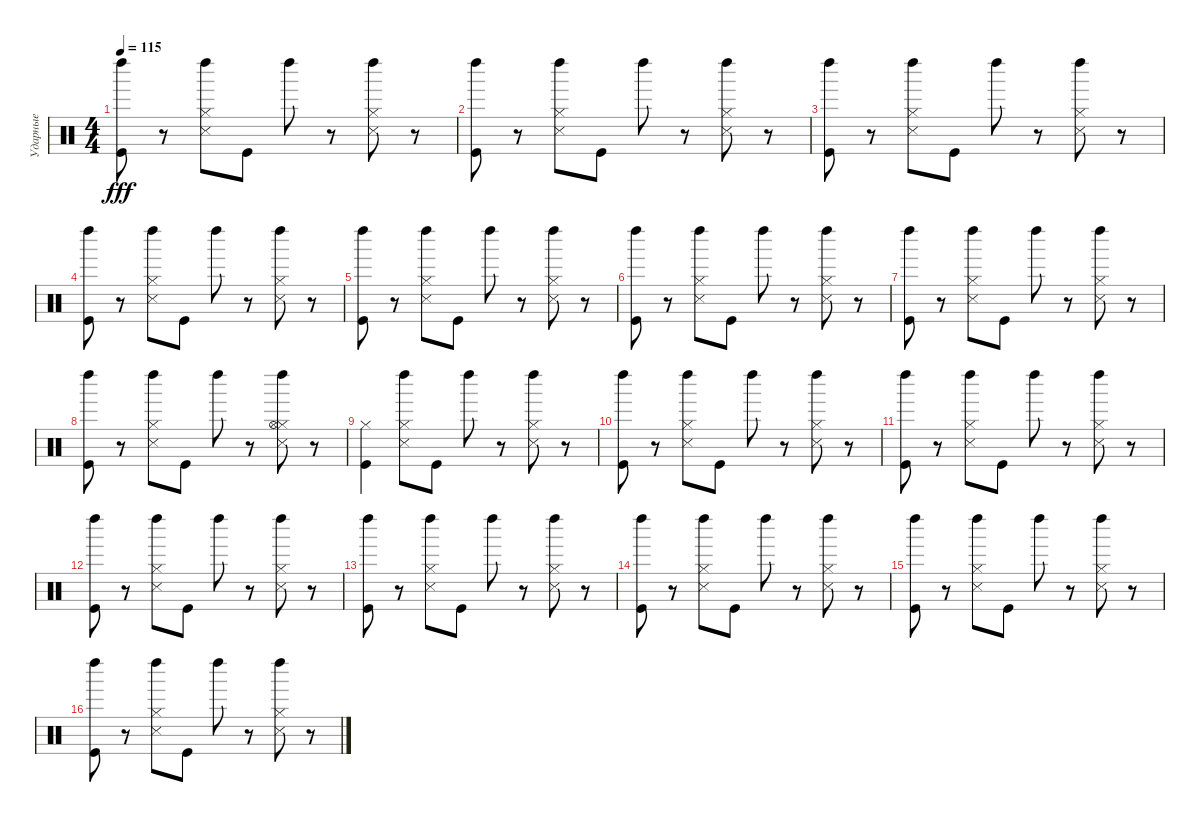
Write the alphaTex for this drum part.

\track ("Ударные" "Ударные") {instrument percussion}
\staff {score}
\articulation defaults
\ts (4 4)
\tempo 115
\clef neutral
\ks c
("Kick (hit)" "Left Maraca (hit)").8{dy fff} r.8 ("Snare (side stick) 3" "Hi-Hat (closed)" "Left Maraca (hit)").8 "Kick (hit)".8 "Left Maraca (hit)".8 r.8 ("Hi-Hat (closed)" "Snare (side stick) 3" "Left Maraca (hit)").8 r.8 |
("Kick (hit)" "Left Maraca (hit)").8 r.8 ("Hi-Hat (closed)" "Snare (side stick) 3" "Left Maraca (hit)").8 "Kick (hit)".8 "Left Maraca (hit)".8 r.8 ("Hi-Hat (closed)" "Snare (side stick) 3" "Left Maraca (hit)").8 r.8 |
("Kick (hit)" "Left Maraca (hit)").8 r.8 ("Hi-Hat (closed)" "Snare (side stick) 3" "Left Maraca (hit)").8 "Kick (hit)".8 "Left Maraca (hit)".8 r.8 ("Hi-Hat (closed)" "Snare (side stick) 3" "Left Maraca (hit)").8 r.8 |
("Kick (hit)" "Left Maraca (hit)").8 r.8 ("Hi-Hat (closed)" "Snare (side stick) 3" "Left Maraca (hit)").8 "Kick (hit)".8 "Left Maraca (hit)".8 r.8 ("Hi-Hat (closed)" "Snare (side stick) 3" "Left Maraca (hit)").8 r.8 |
("Kick (hit)" "Left Maraca (hit)").8 r.8 ("Hi-Hat (closed)" "Snare (side stick) 3" "Left Maraca (hit)").8 "Kick (hit)".8 "Left Maraca (hit)".8 r.8 ("Hi-Hat (closed)" "Snare (side stick) 3" "Left Maraca (hit)").8 r.8 |
("Kick (hit)" "Left Maraca (hit)").8 r.8 ("Hi-Hat (closed)" "Snare (side stick) 3" "Left Maraca (hit)").8 "Kick (hit)".8 "Left Maraca (hit)".8 r.8 ("Snare (side stick) 3" "Hi-Hat (closed)" "Left Maraca (hit)").8 r.8 |
("Kick (hit)" "Left Maraca (hit)").8 r.8 ("Hi-Hat (closed)" "Snare (side stick) 3" "Left Maraca (hit)").8 "Kick (hit)".8 "Left Maraca (hit)".8 r.8 ("Hi-Hat (closed)" "Snare (side stick) 3" "Left Maraca (hit)").8 r.8 |
("Kick (hit)" "Left Maraca (hit)").8 r.8 ("Hi-Hat (closed)" "Snare (side stick) 3" "Left Maraca (hit)").8 "Kick (hit)".8 "Left Maraca (hit)".8 r.8 ("Hi-Hat (closed)" "Snare (side stick) 3" "Left Maraca (hit)" "Hi-Hat (open)").8 r.8 |
("Hi-Hat (closed)" "Kick (hit)").4 ("Hi-Hat (closed)" "Snare (side stick) 3" "Left Maraca (hit)").8 "Kick (hit)".8 "Left Maraca (hit)".8 r.8 ("Hi-Hat (closed)" "Snare (side stick) 3" "Left Maraca (hit)").8 r.8 |
("Kick (hit)" "Left Maraca (hit)").8 r.8 ("Hi-Hat (closed)" "Snare (side stick) 3" "Left Maraca (hit)").8 "Kick (hit)".8 "Left Maraca (hit)".8 r.8 ("Hi-Hat (closed)" "Snare (side stick) 3" "Left Maraca (hit)").8 r.8 |
("Kick (hit)" "Left Maraca (hit)").8 r.8 ("Hi-Hat (closed)" "Snare (side stick) 3" "Left Maraca (hit)").8 "Kick (hit)".8 "Left Maraca (hit)".8 r.8 ("Hi-Hat (closed)" "Snare (side stick) 3" "Left Maraca (hit)").8 r.8 |
("Kick (hit)" "Left Maraca (hit)").8 r.8 ("Hi-Hat (closed)" "Snare (side stick) 3" "Left Maraca (hit)").8 "Kick (hit)".8 "Left Maraca (hit)".8 r.8 ("Hi-Hat (closed)" "Snare (side stick) 3" "Left Maraca (hit)").8 r.8 |
("Kick (hit)" "Left Maraca (hit)").8 r.8 ("Hi-Hat (closed)" "Snare (side stick) 3" "Left Maraca (hit)").8 "Kick (hit)".8 "Left Maraca (hit)".8 r.8 ("Hi-Hat (closed)" "Snare (side stick) 3" "Left Maraca (hit)").8 r.8 |
("Kick (hit)" "Left Maraca (hit)").8 r.8 ("Hi-Hat (closed)" "Snare (side stick) 3" "Left Maraca (hit)").8 "Kick (hit)".8 "Left Maraca (hit)".8 r.8 ("Hi-Hat (closed)" "Snare (side stick) 3" "Left Maraca (hit)").8 r.8 |
("Kick (hit)" "Left Maraca (hit)").8 r.8 ("Hi-Hat (closed)" "Snare (side stick) 3" "Left Maraca (hit)").8 "Kick (hit)".8 "Left Maraca (hit)".8 r.8 ("Hi-Hat (closed)" "Snare (side stick) 3" "Left Maraca (hit)").8 r.8 |
("Kick (hit)" "Left Maraca (hit)").8 r.8 ("Hi-Hat (closed)" "Snare (side stick) 3" "Left Maraca (hit)").8 "Kick (hit)".8 "Left Maraca (hit)".8 r.8 ("Hi-Hat (closed)" "Snare (side stick) 3" "Left Maraca (hit)").8 r.8
